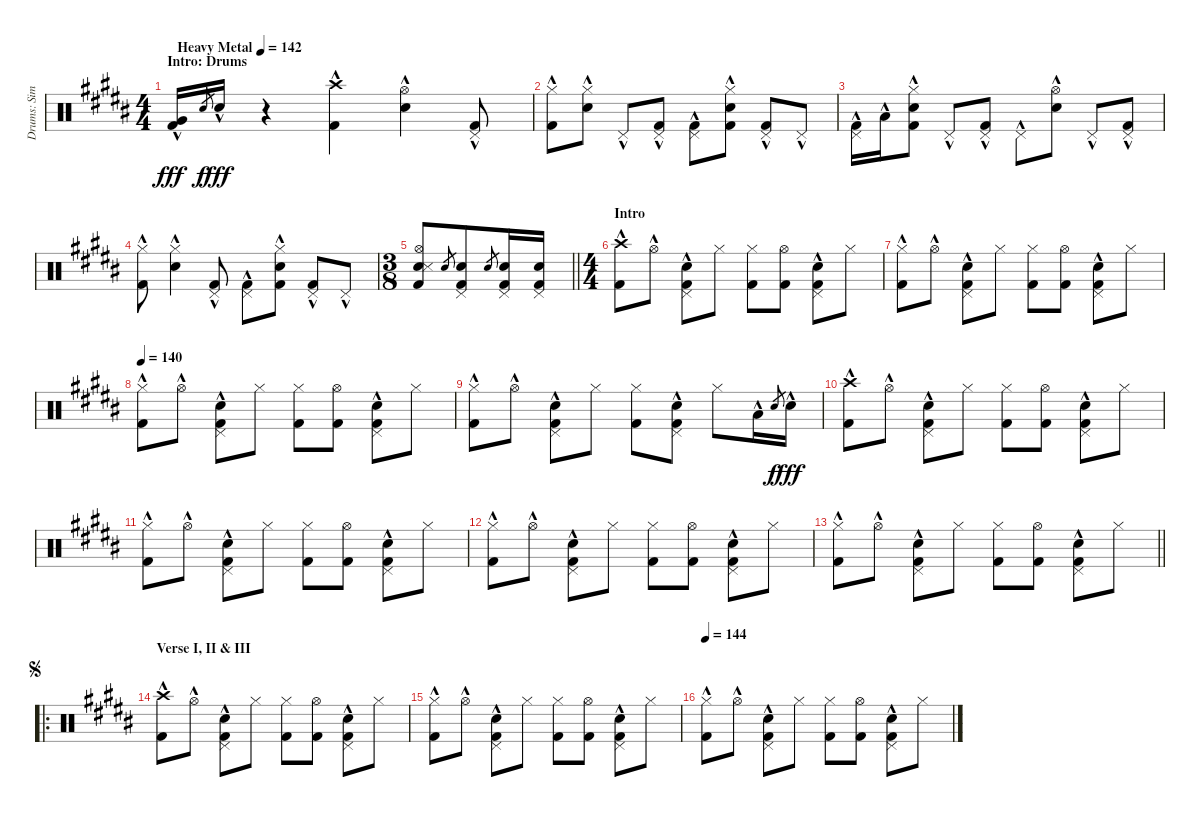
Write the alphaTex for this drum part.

\track ("Drums: Simon" "Drums: Sim") {instrument percussion}
\staff {score}
\articulation defaults
\ts (4 4)
\section ("" "Intro: Drums")
\tempo (142 "Heavy Metal")
\tempo 139
\tempo (142 "Heavy Metal")
\clef neutral
\ks b
("Very Low Tom (hit)"{hac} "Kick (hit) 2").16{dy fff} "Snare (hit) 2".8{gr dy f} "Snare (hit) 2"{hac}.16{dy fff} r.4 ("Crash high (hit)"{hac} "Kick (hit) 2"{hac}).4 ("Hi-Hat (open)"{hac} "Snare (hit) 2"{hac}).4 ("Pedal Hi-Hat (hit)"{hac} "Kick (hit) 2"{hac}).8 |
("Hi-Hat (closed)"{hac} "Kick (hit) 2"{hac}).8 ("Hi-Hat (closed)"{hac} "Snare (hit) 2"{hac}).8 "Pedal Hi-Hat (hit)"{hac}.8 ("Pedal Hi-Hat (hit)"{hac} "Kick (hit) 2"{hac}).8 ("Pedal Hi-Hat (hit)"{hac} "Kick (hit) 2"{hac}).8 ("Hi-Hat (closed)"{hac} "Snare (hit) 2"{hac} "Kick (hit) 2").8 ("Pedal Hi-Hat (hit)"{hac} "Kick (hit) 2"{hac}).8 "Pedal Hi-Hat (hit)"{hac}.8 |
("Pedal Hi-Hat (hit)"{hac} "Kick (hit) 2"{hac}).16 "Low Tom (hit)"{hac}.16 ("Hi-Hat (closed)"{hac} "Snare (hit) 2"{hac} "Kick (hit) 2").8 "Pedal Hi-Hat (hit)"{hac}.8 ("Pedal Hi-Hat (hit)"{hac} "Kick (hit) 2"{hac}).8 "Pedal Hi-Hat (hit)"{hac}.8 ("Hi-Hat (open)"{hac} "Snare (hit) 2"{hac}).8 "Pedal Hi-Hat (hit)"{hac}.8 ("Pedal Hi-Hat (hit)"{hac} "Kick (hit) 2"{hac}).8 |
("Hi-Hat (closed)"{hac} "Kick (hit) 2"{hac}).8 ("Hi-Hat (closed)"{hac} "Snare (hit) 2"{hac}).4 ("Pedal Hi-Hat (hit)"{hac} "Kick (hit) 2"{hac}).8 ("Pedal Hi-Hat (hit)"{hac} "Kick (hit) 2"{hac}).8 ("Hi-Hat (closed)"{hac} "Snare (hit) 2"{hac} "Kick (hit) 2").8 ("Pedal Hi-Hat (hit)"{hac} "Kick (hit) 2"{hac}).8 "Pedal Hi-Hat (hit)"{hac}.8 |
\ts (3 8)
\barLineRight lightlight
("Hi-Hat (open)" "Snare (hit) 2" "Kick (hit) 2" "Snare (side stick) 3").8 "Electric Snare (hit)".8{gr} ("Pedal Hi-Hat (hit)" "Snare (hit) 2" "Kick (hit) 2").8 "Electric Snare (hit)".8{gr} ("Pedal Hi-Hat (hit)" "Snare (hit) 2" "Kick (hit) 2").16 ("Pedal Hi-Hat (hit)" "Snare (hit) 2" "Kick (hit) 2").16 |
\ts (4 4)
\section ("" "Intro")
("Crash high (hit)"{hac} "Kick (hit) 2"{hac}).8 "Hi-Hat (open)"{hac}.8 ("Pedal Hi-Hat (hit)"{hac} "Snare (hit) 2"{hac} "Kick (hit) 2"{hac}).8 "Hi-Hat (closed)".8 ("Hi-Hat (closed)" "Kick (hit) 2").8 ("Hi-Hat (open)" "Kick (hit) 2").8 ("Pedal Hi-Hat (hit)"{hac} "Snare (hit) 2"{hac} "Kick (hit) 2"{hac}).8 "Hi-Hat (closed)".8 |
("Hi-Hat (closed)" "Kick (hit) 2"{hac}).8 "Hi-Hat (open)"{hac}.8 ("Pedal Hi-Hat (hit)"{hac} "Snare (hit) 2"{hac} "Kick (hit) 2"{hac}).8 "Hi-Hat (closed)".8 ("Hi-Hat (closed)" "Kick (hit) 2").8 ("Hi-Hat (open)" "Kick (hit) 2").8 ("Pedal Hi-Hat (hit)"{hac} "Snare (hit) 2"{hac} "Kick (hit) 2"{hac}).8 "Hi-Hat (closed)".8 |
\tempo 140
("Hi-Hat (closed)" "Kick (hit) 2"{hac}).8 "Hi-Hat (open)"{hac}.8 ("Pedal Hi-Hat (hit)"{hac} "Snare (hit) 2"{hac} "Kick (hit) 2"{hac}).8 "Hi-Hat (closed)".8 ("Hi-Hat (closed)" "Kick (hit) 2").8 ("Hi-Hat (open)" "Kick (hit) 2").8 ("Pedal Hi-Hat (hit)"{hac} "Snare (hit) 2"{hac} "Kick (hit) 2"{hac}).8 "Hi-Hat (closed)".8 |
("Hi-Hat (closed)" "Kick (hit) 2"{hac}).8 "Hi-Hat (open)"{hac}.8 ("Pedal Hi-Hat (hit)"{hac} "Snare (hit) 2"{hac} "Kick (hit) 2"{hac}).8 "Hi-Hat (closed)".8 ("Hi-Hat (closed)" "Kick (hit) 2").8 ("Pedal Hi-Hat (hit)"{hac} "Snare (hit) 2"{hac} "Kick (hit) 2"{hac}).8 "Hi-Hat (closed)".8 "Low Tom (hit)"{hac}.16 "Snare (hit) 2".8{gr dy f} "Snare (hit) 2"{hac}.16{dy fff} |
("Crash high (hit)"{hac} "Kick (hit) 2"{hac}).8 "Hi-Hat (open)"{hac}.8 ("Pedal Hi-Hat (hit)"{hac} "Snare (hit) 2"{hac} "Kick (hit) 2"{hac}).8 "Hi-Hat (closed)".8 ("Hi-Hat (closed)" "Kick (hit) 2").8 ("Hi-Hat (open)" "Kick (hit) 2").8 ("Pedal Hi-Hat (hit)"{hac} "Snare (hit) 2"{hac} "Kick (hit) 2"{hac}).8 "Hi-Hat (closed)".8 |
("Hi-Hat (closed)" "Kick (hit) 2"{hac}).8 "Hi-Hat (open)"{hac}.8 ("Pedal Hi-Hat (hit)"{hac} "Snare (hit) 2"{hac} "Kick (hit) 2"{hac}).8 "Hi-Hat (closed)".8 ("Hi-Hat (closed)" "Kick (hit) 2").8 ("Hi-Hat (open)" "Kick (hit) 2").8 ("Pedal Hi-Hat (hit)"{hac} "Snare (hit) 2"{hac} "Kick (hit) 2"{hac}).8 "Hi-Hat (closed)".8 |
("Hi-Hat (closed)" "Kick (hit) 2"{hac}).8 "Hi-Hat (open)"{hac}.8 ("Pedal Hi-Hat (hit)"{hac} "Snare (hit) 2"{hac} "Kick (hit) 2"{hac}).8 "Hi-Hat (closed)".8 ("Hi-Hat (closed)" "Kick (hit) 2").8 ("Hi-Hat (open)" "Kick (hit) 2").8 ("Pedal Hi-Hat (hit)"{hac} "Snare (hit) 2"{hac} "Kick (hit) 2"{hac}).8 "Hi-Hat (closed)".8 |
\barLineRight lightlight
("Hi-Hat (closed)" "Kick (hit) 2"{hac}).8 "Hi-Hat (open)"{hac}.8 ("Pedal Hi-Hat (hit)"{hac} "Snare (hit) 2"{hac} "Kick (hit) 2"{hac}).8 "Hi-Hat (closed)".8 ("Hi-Hat (closed)" "Kick (hit) 2").8 ("Hi-Hat (open)" "Kick (hit) 2").8 ("Pedal Hi-Hat (hit)"{hac} "Snare (hit) 2"{hac} "Kick (hit) 2"{hac}).8 "Hi-Hat (closed)".8 |
\ro
\section ("" "Verse I, II & III")
\jump segno
("Crash high (hit)"{hac} "Kick (hit) 2"{hac}).8 "Hi-Hat (open)"{hac}.8 ("Pedal Hi-Hat (hit)"{hac} "Snare (hit) 2"{hac} "Kick (hit) 2"{hac}).8 "Hi-Hat (closed)".8 ("Hi-Hat (closed)" "Kick (hit) 2").8 ("Hi-Hat (open)" "Kick (hit) 2").8 ("Pedal Hi-Hat (hit)"{hac} "Snare (hit) 2"{hac} "Kick (hit) 2"{hac}).8 "Hi-Hat (closed)".8 |
("Hi-Hat (closed)" "Kick (hit) 2"{hac}).8 "Hi-Hat (open)"{hac}.8 ("Pedal Hi-Hat (hit)"{hac} "Snare (hit) 2"{hac} "Kick (hit) 2"{hac}).8 "Hi-Hat (closed)".8 ("Hi-Hat (closed)" "Kick (hit) 2").8 ("Hi-Hat (open)" "Kick (hit) 2").8 ("Pedal Hi-Hat (hit)"{hac} "Snare (hit) 2"{hac} "Kick (hit) 2"{hac}).8 "Hi-Hat (closed)".8 |
\tempo 144
("Hi-Hat (closed)" "Kick (hit) 2"{hac}).8 "Hi-Hat (open)"{hac}.8 ("Pedal Hi-Hat (hit)"{hac} "Snare (hit) 2"{hac} "Kick (hit) 2"{hac}).8 "Hi-Hat (closed)".8 ("Hi-Hat (closed)" "Kick (hit) 2").8 ("Hi-Hat (open)" "Kick (hit) 2").8 ("Pedal Hi-Hat (hit)"{hac} "Snare (hit) 2"{hac} "Kick (hit) 2"{hac}).8 "Hi-Hat (closed)".8
